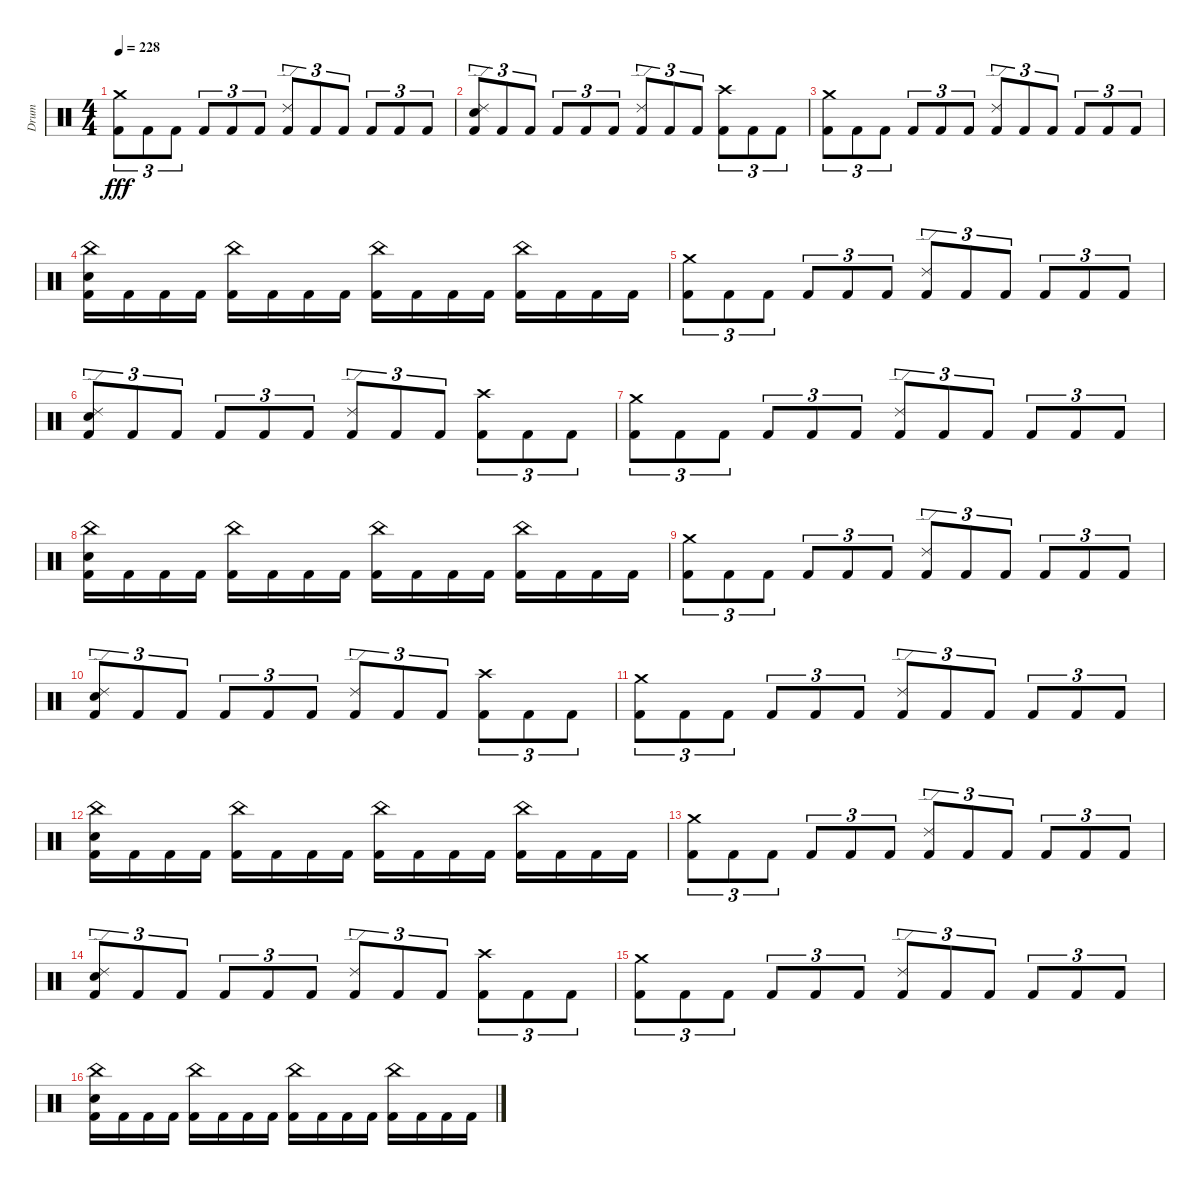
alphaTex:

\track ("Drum" "Drum") {instrument percussion}
\staff {score}
\articulation defaults
\ts (4 4)
\tempo 228
\clef neutral
\ks c
("Crash medium (hit)" "Kick (hit) 2").8{tu (3 2) dy fff} "Kick (hit) 2".8{tu (3 2)} "Kick (hit) 2".8{tu (3 2)} "Kick (hit) 2".8{tu (3 2)} "Kick (hit) 2".8{tu (3 2)} "Kick (hit) 2".8{tu (3 2)} ("Ride (edge) 2" "Kick (hit) 2").8{tu (3 2)} "Kick (hit) 2".8{tu (3 2)} "Kick (hit) 2".8{tu (3 2)} "Kick (hit) 2".8{tu (3 2)} "Kick (hit) 2".8{tu (3 2)} "Kick (hit) 2".8{tu (3 2)} |
("Ride (edge) 2" "Snare (hit) 2" "Kick (hit) 2").8{tu (3 2)} "Kick (hit) 2".8{tu (3 2)} "Kick (hit) 2".8{tu (3 2)} "Kick (hit) 2".8{tu (3 2)} "Kick (hit) 2".8{tu (3 2)} "Kick (hit) 2".8{tu (3 2)} ("Ride (edge) 2" "Kick (hit) 2").8{tu (3 2)} "Kick (hit) 2".8{tu (3 2)} "Kick (hit) 2".8{tu (3 2)} ("Crash high (hit)" "Kick (hit) 2").8{tu (3 2)} "Kick (hit) 2".8{tu (3 2)} "Kick (hit) 2".8{tu (3 2)} |
("Crash medium (hit)" "Kick (hit) 2").8{tu (3 2)} "Kick (hit) 2".8{tu (3 2)} "Kick (hit) 2".8{tu (3 2)} "Kick (hit) 2".8{tu (3 2)} "Kick (hit) 2".8{tu (3 2)} "Kick (hit) 2".8{tu (3 2)} ("Ride (edge) 2" "Kick (hit) 2").8{tu (3 2)} "Kick (hit) 2".8{tu (3 2)} "Kick (hit) 2".8{tu (3 2)} "Kick (hit) 2".8{tu (3 2)} "Kick (hit) 2".8{tu (3 2)} "Kick (hit) 2".8{tu (3 2)} |
("China (hit)" "Snare (hit) 2" "Kick (hit) 2").16 "Kick (hit) 2".16 "Kick (hit) 2".16 "Kick (hit) 2".16 ("China (hit)" "Kick (hit) 2").16 "Kick (hit) 2".16 "Kick (hit) 2".16 "Kick (hit) 2".16 ("China (hit)" "Kick (hit) 2").16 "Kick (hit) 2".16 "Kick (hit) 2".16 "Kick (hit) 2".16 ("China (hit)" "Kick (hit) 2").16 "Kick (hit) 2".16 "Kick (hit) 2".16 "Kick (hit) 2".16 |
("Crash medium (hit)" "Kick (hit) 2").8{tu (3 2)} "Kick (hit) 2".8{tu (3 2)} "Kick (hit) 2".8{tu (3 2)} "Kick (hit) 2".8{tu (3 2)} "Kick (hit) 2".8{tu (3 2)} "Kick (hit) 2".8{tu (3 2)} ("Ride (edge) 2" "Kick (hit) 2").8{tu (3 2)} "Kick (hit) 2".8{tu (3 2)} "Kick (hit) 2".8{tu (3 2)} "Kick (hit) 2".8{tu (3 2)} "Kick (hit) 2".8{tu (3 2)} "Kick (hit) 2".8{tu (3 2)} |
("Ride (edge) 2" "Snare (hit) 2" "Kick (hit) 2").8{tu (3 2)} "Kick (hit) 2".8{tu (3 2)} "Kick (hit) 2".8{tu (3 2)} "Kick (hit) 2".8{tu (3 2)} "Kick (hit) 2".8{tu (3 2)} "Kick (hit) 2".8{tu (3 2)} ("Ride (edge) 2" "Kick (hit) 2").8{tu (3 2)} "Kick (hit) 2".8{tu (3 2)} "Kick (hit) 2".8{tu (3 2)} ("Crash high (hit)" "Kick (hit) 2").8{tu (3 2)} "Kick (hit) 2".8{tu (3 2)} "Kick (hit) 2".8{tu (3 2)} |
("Crash medium (hit)" "Kick (hit) 2").8{tu (3 2)} "Kick (hit) 2".8{tu (3 2)} "Kick (hit) 2".8{tu (3 2)} "Kick (hit) 2".8{tu (3 2)} "Kick (hit) 2".8{tu (3 2)} "Kick (hit) 2".8{tu (3 2)} ("Ride (edge) 2" "Kick (hit) 2").8{tu (3 2)} "Kick (hit) 2".8{tu (3 2)} "Kick (hit) 2".8{tu (3 2)} "Kick (hit) 2".8{tu (3 2)} "Kick (hit) 2".8{tu (3 2)} "Kick (hit) 2".8{tu (3 2)} |
("China (hit)" "Snare (hit) 2" "Kick (hit) 2").16 "Kick (hit) 2".16 "Kick (hit) 2".16 "Kick (hit) 2".16 ("China (hit)" "Kick (hit) 2").16 "Kick (hit) 2".16 "Kick (hit) 2".16 "Kick (hit) 2".16 ("China (hit)" "Kick (hit) 2").16 "Kick (hit) 2".16 "Kick (hit) 2".16 "Kick (hit) 2".16 ("China (hit)" "Kick (hit) 2").16 "Kick (hit) 2".16 "Kick (hit) 2".16 "Kick (hit) 2".16 |
("Crash medium (hit)" "Kick (hit) 2").8{tu (3 2)} "Kick (hit) 2".8{tu (3 2)} "Kick (hit) 2".8{tu (3 2)} "Kick (hit) 2".8{tu (3 2)} "Kick (hit) 2".8{tu (3 2)} "Kick (hit) 2".8{tu (3 2)} ("Ride (edge) 2" "Kick (hit) 2").8{tu (3 2)} "Kick (hit) 2".8{tu (3 2)} "Kick (hit) 2".8{tu (3 2)} "Kick (hit) 2".8{tu (3 2)} "Kick (hit) 2".8{tu (3 2)} "Kick (hit) 2".8{tu (3 2)} |
("Ride (edge) 2" "Snare (hit) 2" "Kick (hit) 2").8{tu (3 2)} "Kick (hit) 2".8{tu (3 2)} "Kick (hit) 2".8{tu (3 2)} "Kick (hit) 2".8{tu (3 2)} "Kick (hit) 2".8{tu (3 2)} "Kick (hit) 2".8{tu (3 2)} ("Ride (edge) 2" "Kick (hit) 2").8{tu (3 2)} "Kick (hit) 2".8{tu (3 2)} "Kick (hit) 2".8{tu (3 2)} ("Crash high (hit)" "Kick (hit) 2").8{tu (3 2)} "Kick (hit) 2".8{tu (3 2)} "Kick (hit) 2".8{tu (3 2)} |
("Crash medium (hit)" "Kick (hit) 2").8{tu (3 2)} "Kick (hit) 2".8{tu (3 2)} "Kick (hit) 2".8{tu (3 2)} "Kick (hit) 2".8{tu (3 2)} "Kick (hit) 2".8{tu (3 2)} "Kick (hit) 2".8{tu (3 2)} ("Ride (edge) 2" "Kick (hit) 2").8{tu (3 2)} "Kick (hit) 2".8{tu (3 2)} "Kick (hit) 2".8{tu (3 2)} "Kick (hit) 2".8{tu (3 2)} "Kick (hit) 2".8{tu (3 2)} "Kick (hit) 2".8{tu (3 2)} |
("China (hit)" "Snare (hit) 2" "Kick (hit) 2").16 "Kick (hit) 2".16 "Kick (hit) 2".16 "Kick (hit) 2".16 ("China (hit)" "Kick (hit) 2").16 "Kick (hit) 2".16 "Kick (hit) 2".16 "Kick (hit) 2".16 ("China (hit)" "Kick (hit) 2").16 "Kick (hit) 2".16 "Kick (hit) 2".16 "Kick (hit) 2".16 ("China (hit)" "Kick (hit) 2").16 "Kick (hit) 2".16 "Kick (hit) 2".16 "Kick (hit) 2".16 |
("Crash medium (hit)" "Kick (hit) 2").8{tu (3 2)} "Kick (hit) 2".8{tu (3 2)} "Kick (hit) 2".8{tu (3 2)} "Kick (hit) 2".8{tu (3 2)} "Kick (hit) 2".8{tu (3 2)} "Kick (hit) 2".8{tu (3 2)} ("Ride (edge) 2" "Kick (hit) 2").8{tu (3 2)} "Kick (hit) 2".8{tu (3 2)} "Kick (hit) 2".8{tu (3 2)} "Kick (hit) 2".8{tu (3 2)} "Kick (hit) 2".8{tu (3 2)} "Kick (hit) 2".8{tu (3 2)} |
("Ride (edge) 2" "Snare (hit) 2" "Kick (hit) 2").8{tu (3 2)} "Kick (hit) 2".8{tu (3 2)} "Kick (hit) 2".8{tu (3 2)} "Kick (hit) 2".8{tu (3 2)} "Kick (hit) 2".8{tu (3 2)} "Kick (hit) 2".8{tu (3 2)} ("Ride (edge) 2" "Kick (hit) 2").8{tu (3 2)} "Kick (hit) 2".8{tu (3 2)} "Kick (hit) 2".8{tu (3 2)} ("Crash high (hit)" "Kick (hit) 2").8{tu (3 2)} "Kick (hit) 2".8{tu (3 2)} "Kick (hit) 2".8{tu (3 2)} |
("Crash medium (hit)" "Kick (hit) 2").8{tu (3 2)} "Kick (hit) 2".8{tu (3 2)} "Kick (hit) 2".8{tu (3 2)} "Kick (hit) 2".8{tu (3 2)} "Kick (hit) 2".8{tu (3 2)} "Kick (hit) 2".8{tu (3 2)} ("Ride (edge) 2" "Kick (hit) 2").8{tu (3 2)} "Kick (hit) 2".8{tu (3 2)} "Kick (hit) 2".8{tu (3 2)} "Kick (hit) 2".8{tu (3 2)} "Kick (hit) 2".8{tu (3 2)} "Kick (hit) 2".8{tu (3 2)} |
("China (hit)" "Snare (hit) 2" "Kick (hit) 2").16 "Kick (hit) 2".16 "Kick (hit) 2".16 "Kick (hit) 2".16 ("China (hit)" "Kick (hit) 2").16 "Kick (hit) 2".16 "Kick (hit) 2".16 "Kick (hit) 2".16 ("China (hit)" "Kick (hit) 2").16 "Kick (hit) 2".16 "Kick (hit) 2".16 "Kick (hit) 2".16 ("China (hit)" "Kick (hit) 2").16 "Kick (hit) 2".16 "Kick (hit) 2".16 "Kick (hit) 2".16
